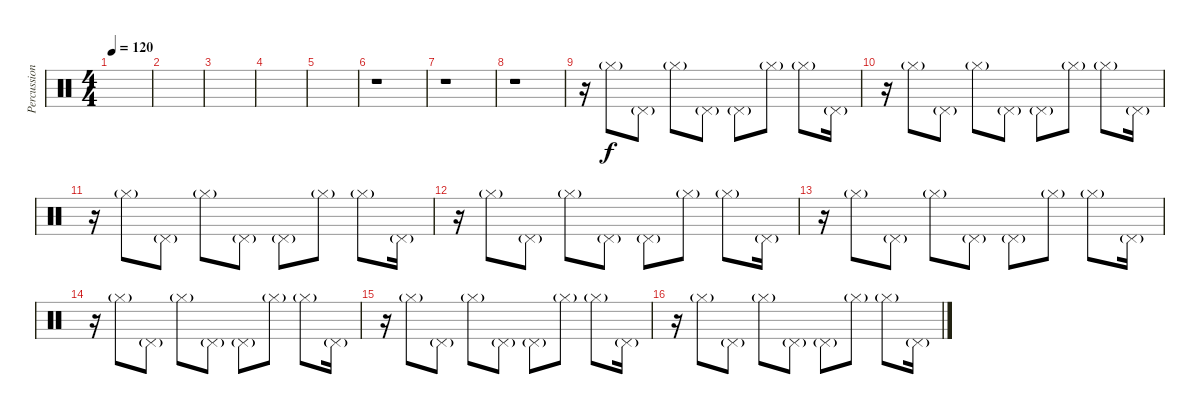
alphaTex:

\track ("Percussion" "Percussion") {instrument percussion}
\staff {score}
\articulation defaults
\ts (4 4)
\tempo 120
\clef neutral
\ks c
|
|
|
|
|
r.1 |
r.1 |
r.1 |
r.16 "Hi-Hat (closed)"{g}.8 "Pedal Hi-Hat (hit)"{g}.8 "Hi-Hat (closed)"{g}.8 "Pedal Hi-Hat (hit)"{g}.8 "Pedal Hi-Hat (hit)"{g}.8 "Hi-Hat (closed)"{g}.8 "Hi-Hat (closed)"{g}.8 "Pedal Hi-Hat (hit)"{g}.16 |
r.16 "Hi-Hat (closed)"{g}.8 "Pedal Hi-Hat (hit)"{g}.8 "Hi-Hat (closed)"{g}.8 "Pedal Hi-Hat (hit)"{g}.8 "Pedal Hi-Hat (hit)"{g}.8 "Hi-Hat (closed)"{g}.8 "Hi-Hat (closed)"{g}.8 "Pedal Hi-Hat (hit)"{g}.16 |
r.16 "Hi-Hat (closed)"{g}.8 "Pedal Hi-Hat (hit)"{g}.8 "Hi-Hat (closed)"{g}.8 "Pedal Hi-Hat (hit)"{g}.8 "Pedal Hi-Hat (hit)"{g}.8 "Hi-Hat (closed)"{g}.8 "Hi-Hat (closed)"{g}.8 "Pedal Hi-Hat (hit)"{g}.16 |
r.16 "Hi-Hat (closed)"{g}.8 "Pedal Hi-Hat (hit)"{g}.8 "Hi-Hat (closed)"{g}.8 "Pedal Hi-Hat (hit)"{g}.8 "Pedal Hi-Hat (hit)"{g}.8 "Hi-Hat (closed)"{g}.8 "Hi-Hat (closed)"{g}.8 "Pedal Hi-Hat (hit)"{g}.16 |
r.16 "Hi-Hat (closed)"{g}.8 "Pedal Hi-Hat (hit)"{g}.8 "Hi-Hat (closed)"{g}.8 "Pedal Hi-Hat (hit)"{g}.8 "Pedal Hi-Hat (hit)"{g}.8 "Hi-Hat (closed)"{g}.8 "Hi-Hat (closed)"{g}.8 "Pedal Hi-Hat (hit)"{g}.16 |
r.16 "Hi-Hat (closed)"{g}.8 "Pedal Hi-Hat (hit)"{g}.8 "Hi-Hat (closed)"{g}.8 "Pedal Hi-Hat (hit)"{g}.8 "Pedal Hi-Hat (hit)"{g}.8 "Hi-Hat (closed)"{g}.8 "Hi-Hat (closed)"{g}.8 "Pedal Hi-Hat (hit)"{g}.16 |
r.16 "Hi-Hat (closed)"{g}.8 "Pedal Hi-Hat (hit)"{g}.8 "Hi-Hat (closed)"{g}.8 "Pedal Hi-Hat (hit)"{g}.8 "Pedal Hi-Hat (hit)"{g}.8 "Hi-Hat (closed)"{g}.8 "Hi-Hat (closed)"{g}.8 "Pedal Hi-Hat (hit)"{g}.16 |
r.16 "Hi-Hat (closed)"{g}.8 "Pedal Hi-Hat (hit)"{g}.8 "Hi-Hat (closed)"{g}.8 "Pedal Hi-Hat (hit)"{g}.8 "Pedal Hi-Hat (hit)"{g}.8 "Hi-Hat (closed)"{g}.8 "Hi-Hat (closed)"{g}.8 "Pedal Hi-Hat (hit)"{g}.16
